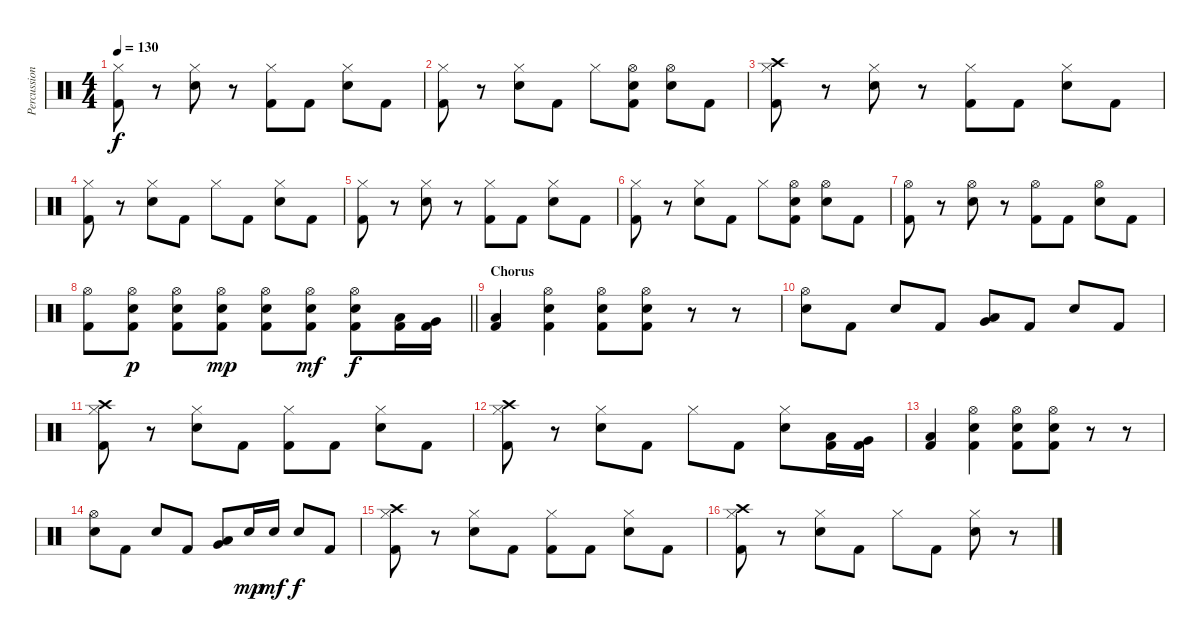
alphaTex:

\track ("Percussion" "Percussion") {instrument percussion}
\staff {score}
\articulation defaults
\ts (4 4)
\tempo 130
\clef neutral
\ks c
("Hi-Hat (closed)" "Kick (hit) 2").8{dy f} r.8 ("Hi-Hat (closed)" "Snare (hit) 2").8 r.8 ("Hi-Hat (closed)" "Kick (hit) 2").8 "Kick (hit) 2".8 ("Hi-Hat (closed)" "Snare (hit) 2").8 "Kick (hit) 2".8 |
("Hi-Hat (closed)" "Kick (hit) 2").8 r.8 ("Hi-Hat (closed)" "Snare (hit) 2").8 "Kick (hit) 2".8 "Hi-Hat (closed)".8 ("Hi-Hat (open)" "Snare (hit) 2" "Kick (hit) 2").8 ("Hi-Hat (open)" "Snare (hit) 2").8 "Kick (hit) 2".8 |
("Crash high (hit)" "Hi-Hat (closed)" "Kick (hit) 2").8 r.8 ("Hi-Hat (closed)" "Snare (hit) 2").8 r.8 ("Hi-Hat (closed)" "Kick (hit) 2").8 "Kick (hit) 2".8 ("Hi-Hat (closed)" "Snare (hit) 2").8 "Kick (hit) 2".8 |
("Hi-Hat (closed)" "Kick (hit) 2").8 r.8 ("Hi-Hat (closed)" "Snare (hit) 2").8 "Kick (hit) 2".8 "Hi-Hat (closed)".8 "Kick (hit) 2".8 ("Hi-Hat (closed)" "Snare (hit) 2").8 "Kick (hit) 2".8 |
("Hi-Hat (closed)" "Kick (hit) 2").8 r.8 ("Hi-Hat (closed)" "Snare (hit) 2").8 r.8 ("Hi-Hat (closed)" "Kick (hit) 2").8 "Kick (hit) 2".8 ("Hi-Hat (closed)" "Snare (hit) 2").8 "Kick (hit) 2".8 |
("Hi-Hat (closed)" "Kick (hit) 2").8 r.8 ("Hi-Hat (closed)" "Snare (hit) 2").8 "Kick (hit) 2".8 "Hi-Hat (closed)".8 ("Hi-Hat (open)" "Snare (hit) 2" "Kick (hit) 2").8 ("Hi-Hat (open)" "Snare (hit) 2").8 "Kick (hit) 2".8 |
("Hi-Hat (open)" "Kick (hit) 2").8 r.8 ("Hi-Hat (open)" "Snare (hit) 2").8 r.8 ("Hi-Hat (open)" "Kick (hit) 2").8 "Kick (hit) 2".8 ("Hi-Hat (open)" "Snare (hit) 2").8 "Kick (hit) 2".8 |
\barLineRight lightlight
("Hi-Hat (open)" "Kick (hit) 2").8 ("Hi-Hat (open)" "Snare (hit) 2" "Kick (hit) 2").8{dy p} ("Hi-Hat (open)" "Snare (hit) 2" "Kick (hit) 2").8 ("Hi-Hat (open)" "Snare (hit) 2" "Kick (hit) 2").8{dy mp} ("Hi-Hat (open)" "Snare (hit) 2" "Kick (hit) 2").8 ("Hi-Hat (open)" "Snare (hit) 2" "Kick (hit) 2").8{dy mf} ("Hi-Hat (open)" "Snare (hit) 2" "Kick (hit) 2").8{dy f} ("Low Tom (hit)" "Kick (hit) 2").16 ("Very Low Tom (hit)" "Kick (hit) 2").16 |
\section ("" "Chorus")
("Low Floor Tom (hit)" "Kick (hit) 2").4 ("Hi-Hat (open)" "Snare (hit) 2" "Kick (hit) 2").4 ("Hi-Hat (open)" "Snare (hit) 2" "Kick (hit) 2").8 ("Hi-Hat (open)" "Snare (hit) 2" "Kick (hit) 2").8 r.8 r.8 |
("Hi-Hat (open)" "Snare (hit) 2").8 "Kick (hit) 2".8 "Snare (hit) 2".8 "Kick (hit) 2".8 ("Very Low Tom (hit)" "Low Floor Tom (hit)").8 "Kick (hit) 2".8 "Snare (hit) 2".8 "Kick (hit) 2".8 |
("Crash high (hit)" "Hi-Hat (closed)" "Kick (hit) 2").8 r.8 ("Hi-Hat (closed)" "Snare (hit) 2").8 "Kick (hit) 2".8 ("Hi-Hat (closed)" "Kick (hit) 2").8 "Kick (hit) 2".8 ("Hi-Hat (closed)" "Snare (hit) 2").8 "Kick (hit) 2".8 |
("Crash high (hit)" "Hi-Hat (closed)" "Kick (hit) 2").8 r.8 ("Hi-Hat (closed)" "Snare (hit) 2").8 "Kick (hit) 2".8 "Hi-Hat (closed)".8 "Kick (hit) 2".8 ("Hi-Hat (closed)" "Snare (hit) 2").8 ("Low Tom (hit)" "Kick (hit) 2").16 ("Very Low Tom (hit)" "Kick (hit) 2").16 |
("Low Floor Tom (hit)" "Kick (hit) 2").4 ("Hi-Hat (open)" "Snare (hit) 2" "Kick (hit) 2").4 ("Hi-Hat (open)" "Snare (hit) 2" "Kick (hit) 2").8 ("Hi-Hat (open)" "Snare (hit) 2" "Kick (hit) 2").8 r.8 r.8 |
("Hi-Hat (open)" "Snare (hit) 2").8 "Kick (hit) 2".8 "Snare (hit) 2".8 "Kick (hit) 2".8 ("Very Low Tom (hit)" "Low Floor Tom (hit)").8 "Snare (hit) 2".16{dy mp} "Snare (hit) 2".16{dy mf} "Snare (hit) 2".8{dy f} "Kick (hit) 2".8 |
("Crash high (hit)" "Hi-Hat (closed)" "Kick (hit) 2").8 r.8 ("Hi-Hat (closed)" "Snare (hit) 2").8 "Kick (hit) 2".8 ("Hi-Hat (closed)" "Kick (hit) 2").8 "Kick (hit) 2".8 ("Hi-Hat (closed)" "Snare (hit) 2").8 "Kick (hit) 2".8 |
("Crash high (hit)" "Hi-Hat (closed)" "Kick (hit) 2").8 r.8 ("Hi-Hat (closed)" "Snare (hit) 2").8 "Kick (hit) 2".8 "Hi-Hat (closed)".8 "Kick (hit) 2".8 ("Hi-Hat (closed)" "Snare (hit) 2").8 r.8
